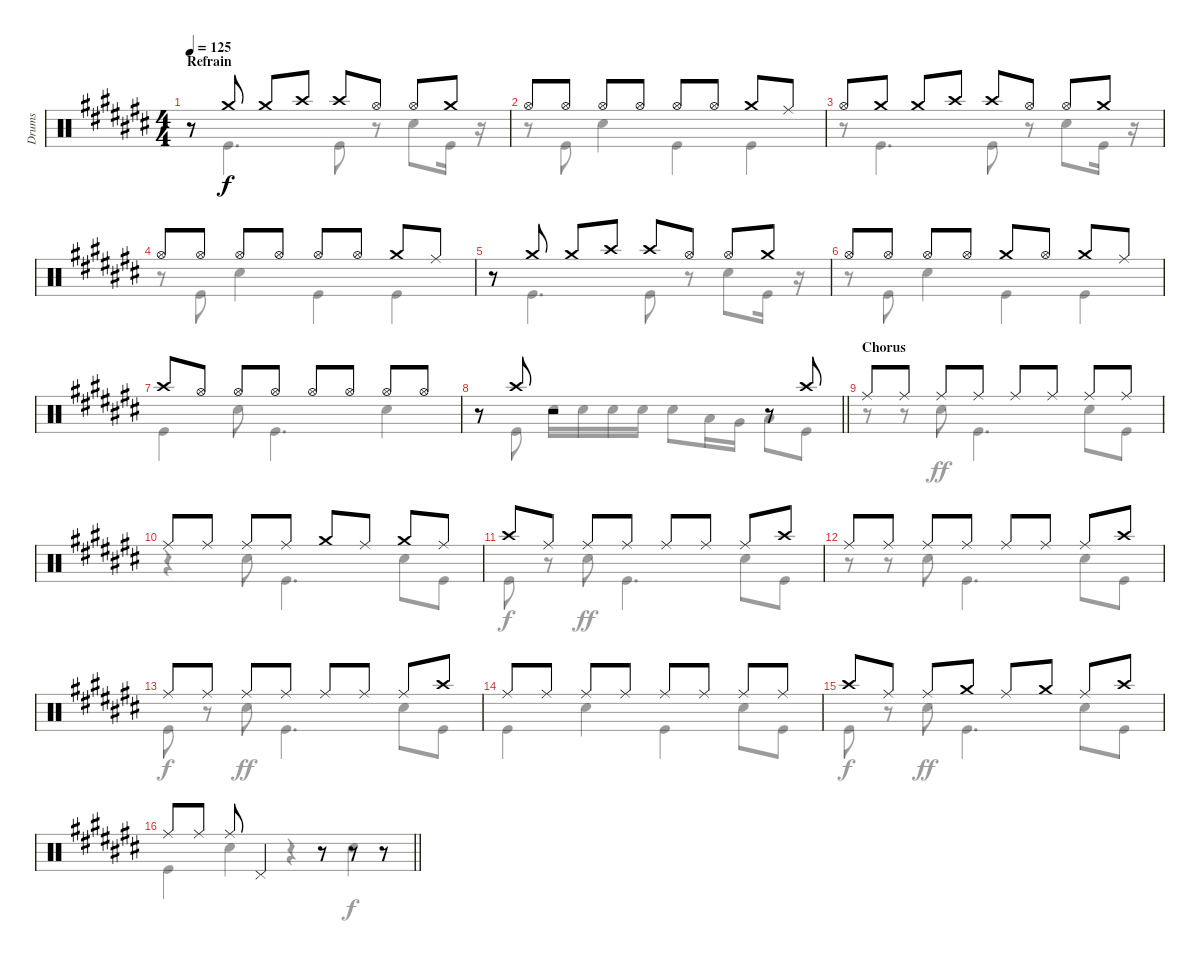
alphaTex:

\track ("Drums" "Drums") {instrument percussion}
\staff {score}
\articulation defaults
\voice
\ts (4 4)
\section ("" "Refrain")
\tempo 125
\clef neutral
\ks c#
r.8{dy f} "Crash medium (hit)".8 "Crash medium (hit)".8 "Crash high (hit)".8 "Crash high (hit)".8 "Hi-Hat (open)".8 "Hi-Hat (open)".8 "Crash medium (hit)".8 |
"Hi-Hat (open)".8 "Hi-Hat (open)".8 "Hi-Hat (open)".8 "Hi-Hat (open)".8 "Hi-Hat (open)".8 "Hi-Hat (open)".8 "Crash medium (hit)".8 "Ride (middle)".8 |
"Hi-Hat (open)".8 "Crash medium (hit)".8 "Crash medium (hit)".8 "Crash high (hit)".8 "Crash high (hit)".8 "Hi-Hat (open)".8 "Hi-Hat (open)".8 "Crash medium (hit)".8 |
"Hi-Hat (open)".8 "Hi-Hat (open)".8 "Hi-Hat (open)".8 "Hi-Hat (open)".8 "Hi-Hat (open)".8 "Hi-Hat (open)".8 "Crash medium (hit)".8 "Ride (middle)".8 |
r.8 "Crash medium (hit)".8 "Crash medium (hit)".8 "Crash high (hit)".8 "Crash high (hit)".8 "Hi-Hat (open)".8 "Hi-Hat (open)".8 "Crash medium (hit)".8 |
"Hi-Hat (open)".8 "Hi-Hat (open)".8 "Hi-Hat (open)".8 "Hi-Hat (open)".8 "Crash medium (hit)".8 "Hi-Hat (open)".8 "Crash medium (hit)".8 "Ride (middle)".8 |
"Crash high (hit)".8 "Hi-Hat (open)".8 "Hi-Hat (open)".8 "Hi-Hat (open)".8 "Hi-Hat (open)".8 "Hi-Hat (open)".8 "Hi-Hat (open)".8 "Hi-Hat (open)".8 |
\barLineRight lightlight
r.8 "Crash high (hit)".8 r.2 r.8 "Crash high (hit)".8 |
\section ("" "Chorus")
"Ride (middle)".8 "Ride (middle)".8 "Ride (middle)".8 "Ride (middle)".8 "Ride (middle)".8 "Ride (middle)".8 "Ride (middle)".8 "Ride (middle)".8 |
"Ride (middle)".8 "Ride (middle)".8 "Ride (middle)".8 "Ride (middle)".8 "Crash medium (hit)".8 "Ride (middle)".8 "Crash medium (hit)".8 "Ride (middle)".8 |
"Crash high (hit)".8 "Ride (middle)".8 "Ride (middle)".8 "Ride (middle)".8 "Ride (middle)".8 "Ride (middle)".8 "Ride (middle)".8 "Crash high (hit)".8 |
"Ride (middle)".8 "Ride (middle)".8 "Ride (middle)".8 "Ride (middle)".8 "Ride (middle)".8 "Ride (middle)".8 "Ride (middle)".8 "Crash high (hit)".8 |
"Ride (middle)".8 "Ride (middle)".8 "Ride (middle)".8 "Ride (middle)".8 "Ride (middle)".8 "Ride (middle)".8 "Ride (middle)".8 "Crash high (hit)".8 |
"Ride (middle)".8 "Ride (middle)".8 "Ride (middle)".8 "Ride (middle)".8 "Ride (middle)".8 "Ride (middle)".8 "Ride (middle)".8 "Ride (middle)".8 |
"Crash high (hit)".8 "Ride (middle)".8 "Ride (middle)".8 "Crash medium (hit)".8 "Ride (middle)".8 "Crash medium (hit)".8 "Ride (middle)".8 "Crash high (hit)".8 |
\barLineRight lightlight "Ride (middle)".8 "Ride (middle)".8 "Ride (middle)".8 "Pedal Hi-Hat (hit)".4
r.8 r.8 r.8
\voice
\clef neutral
\ottava regular
\simile none
\ks c#
r.8{dy f} "Kick (hit)".4{d} "Kick (hit)".8 r.8 "Snare (hit) 2".8 "Kick (hit)".16 r.16 |
r.8 "Kick (hit)".8 "Snare (hit) 2".4 "Kick (hit)".4 "Kick (hit)".4 |
r.8 "Kick (hit)".4{d} "Kick (hit)".8 r.8 "Snare (hit) 2".8 "Kick (hit)".16 r.16 |
r.8 "Kick (hit)".8 "Snare (hit) 2".4 "Kick (hit)".4 "Kick (hit)".4 |
r.8 "Kick (hit)".4{d} "Kick (hit)".8 r.8 "Snare (hit) 2".8 "Kick (hit)".16 r.16 |
r.8 "Kick (hit)".8 "Snare (hit) 2".4 "Kick (hit)".4 "Kick (hit)".4 |
"Kick (hit)".4 "Snare (hit) 2".8 "Kick (hit)".4{d} "Snare (hit) 2".4 |
\barLineRight lightlight
r.8 "Kick (hit)".8 "Snare (hit) 2".16 "Snare (hit) 2".16 "Snare (hit) 2".16 "Snare (hit) 2".16 "Snare (hit) 2".8 "Low Tom (hit)".16 "Very Low Tom (hit)".16 "Low Floor Tom (hit)".8 "Kick (hit)".8 |
r.8 r.8 "Snare (hit) 2".8{dy ff} "Kick (hit)".4{d} "Snare (hit) 2".8 "Kick (hit)".8 |
r.4 "Snare (hit) 2".8 "Kick (hit)".4{d} "Snare (hit) 2".8 "Kick (hit)".8 |
"Kick (hit)".8{dy f} r.8 "Snare (hit) 2".8{dy ff} "Kick (hit)".4{d} "Snare (hit) 2".8 "Kick (hit)".8 |
r.8 r.8 "Snare (hit) 2".8 "Kick (hit)".4{d} "Snare (hit) 2".8 "Kick (hit)".8 |
"Kick (hit)".8{dy f} r.8 "Snare (hit) 2".8{dy ff} "Kick (hit)".4{d} "Snare (hit) 2".8 "Kick (hit)".8 |
"Kick (hit)".4 "Snare (hit) 2".4 "Kick (hit)".4 "Snare (hit) 2".8 "Kick (hit)".8 |
"Kick (hit)".8{dy f} r.8 "Snare (hit) 2".8{dy ff} "Kick (hit)".4{d} "Snare (hit) 2".8 "Kick (hit)".8 |
\barLineRight lightlight "Kick (hit)".4 "Snare (hit) 2".4
r.4 "Snare (hit) 2".4{dy f}
